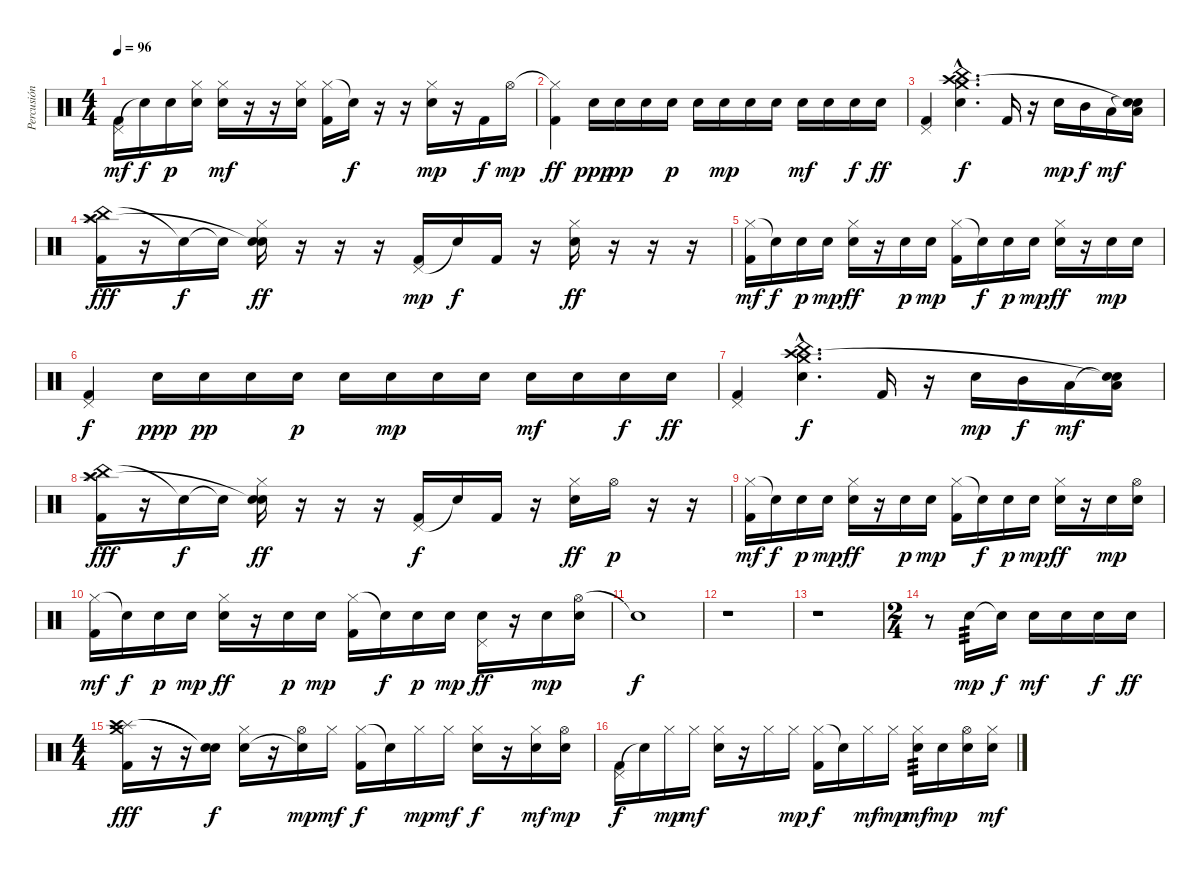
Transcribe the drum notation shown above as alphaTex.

\track ("Percusión" "Percusión") {instrument percussion}
\staff {score}
\articulation defaults
\ts (4 4)
\tempo 96
\clef neutral
\ks c
("Pedal Hi-Hat (hit)" "Kick (hit) 2").16{dy mf} "Snare (hit)"{t}.16{dy f} "Snare (hit) 2".16{dy p} ("Hi-Hat (closed)" "Snare (hit) 2").16 ("Hi-Hat (closed)" "Snare (hit) 2").16{dy mf} r.16 r.16 ("Hi-Hat (closed)" "Snare (hit) 2").16 ("Hi-Hat (closed)" "Kick (hit) 2").16 "Snare (hit)"{t}.16{dy f} r.16 r.16 ("Hi-Hat (closed)" "Snare (hit) 2").16{dy mp} r.16 "Kick (hit) 2".16{dy f} "Hi-Hat (open)".16{dy mp} |
("Hi-Hat (closed)"{t} "Kick (hit) 2").4{dy ff} "Snare (hit) 2".16{dy ppp} "Snare (hit) 2".16{dy pp} "Snare (hit) 2".16 "Snare (hit) 2".16{dy p} "Snare (hit) 2".16 "Snare (hit) 2".16{dy mp} "Snare (hit) 2".16 "Snare (hit) 2".16 "Snare (hit) 2".16{dy mf} "Snare (hit) 2".16 "Snare (hit) 2".16{dy f} "Snare (hit) 2".16{dy ff} |
("Pedal Hi-Hat (hit)" "Kick (hit) 2").4 ("Crash medium (hit)"{hac} "Crash high (hit)"{hac} "Snare (hit) 2"{hac} "China (hit)"{hac}).4{d dy f} "Kick (hit) 2".16 r.16 "Snare (hit) 2".16{dy mp} "Mid Tom (hit)".16{dy f} "Low Tom (hit)".16{dy mf} ("Snare (hit)"{t} "Snare (hit)"{t} "Low Tom (hit)").16 |
("China (hit)" "Crash high (hit)" "Splash (hit)" "Kick (hit) 2").16{dy fff} r.16 "Snare (hit)"{t}.16{dy f} "Snare (hit)"{t}.16 ("Hi-Hat (closed)" "Snare (hit)"{t} "Snare (hit) 2"{tr (38 32)}).16{dy ff} r.16 r.16 r.16 ("Pedal Hi-Hat (hit)" "Kick (hit) 2").16{dy mp} "Snare (hit)"{t}.16{dy f} "Kick (hit) 2".16 r.16 ("Hi-Hat (closed)" "Snare (hit) 2"{tr (38 32)}).16{dy ff} r.16 r.16 r.16 |
("Hi-Hat (closed)" "Kick (hit) 2").16{dy mf} "Snare (hit)"{t}.16{dy f} "Snare (hit) 2".16{dy p} "Snare (hit) 2".16{dy mp} ("Hi-Hat (closed)" "Snare (hit) 2").16{dy ff} r.16 "Snare (hit) 2".16{dy p} "Snare (hit) 2".16{dy mp} ("Hi-Hat (closed)" "Kick (hit) 2").16 "Snare (hit)"{t}.16{dy f} "Snare (hit) 2".16{dy p} "Snare (hit) 2".16{dy mp} ("Hi-Hat (closed)" "Snare (hit) 2").16{dy ff} r.16 "Snare (hit) 2".16{dy mp} "Snare (hit) 2".16 |
("Pedal Hi-Hat (hit)" "Kick (hit) 2").4{dy f} "Snare (hit) 2".16{dy ppp} "Snare (hit) 2".16{dy pp} "Snare (hit) 2".16 "Snare (hit) 2".16{dy p} "Snare (hit) 2".16 "Snare (hit) 2".16{dy mp} "Snare (hit) 2".16 "Snare (hit) 2".16 "Snare (hit) 2".16{dy mf} "Snare (hit) 2".16 "Snare (hit) 2".16{dy f} "Snare (hit) 2".16{dy ff} |
("Pedal Hi-Hat (hit)" "Kick (hit) 2").4 ("Crash medium (hit)"{hac} "Crash high (hit)"{hac} "Snare (hit) 2"{hac} "China (hit)"{hac}).4{d dy f} "Kick (hit) 2".16 r.16 "Snare (hit) 2".16{dy mp} "Mid Tom (hit)".16{dy f} "Low Tom (hit)".16{dy mf} ("Snare (hit)"{t} "Snare (hit)"{t} "Low Tom (hit)").16 |
("China (hit)" "Crash high (hit)" "Splash (hit)" "Kick (hit) 2").16{dy fff} r.16 "Snare (hit)"{t}.16{dy f} "Snare (hit)"{t}.16 ("Hi-Hat (closed)" "Snare (hit)"{t} "Snare (hit) 2"{tr (38 32)}).16{dy ff} r.16 r.16 r.16 ("Pedal Hi-Hat (hit)" "Kick (hit) 2").16{dy f} "Snare (hit)"{t}.16 "Kick (hit) 2".16 r.16 ("Hi-Hat (closed)" "Snare (hit) 2"{tr (38 32)}).16{dy ff} "Hi-Hat (open)".16{dy p} r.16 r.16 |
("Hi-Hat (closed)" "Kick (hit) 2").16{dy mf} "Snare (hit)"{t}.16{dy f} "Snare (hit) 2".16{dy p} "Snare (hit) 2".16{dy mp} ("Hi-Hat (closed)" "Snare (hit) 2").16{dy ff} r.16 "Snare (hit) 2".16{dy p} "Snare (hit) 2".16{dy mp} ("Hi-Hat (closed)" "Kick (hit) 2").16 "Snare (hit)"{t}.16{dy f} "Snare (hit) 2".16{dy p} "Snare (hit) 2".16{dy mp} ("Hi-Hat (closed)" "Snare (hit) 2").16{dy ff} r.16 "Snare (hit) 2".16{dy mp} ("Hi-Hat (open)" "Snare (hit) 2").16 |
("Hi-Hat (closed)" "Kick (hit) 2").16{dy mf} "Snare (hit)"{t}.16{dy f} "Snare (hit) 2".16{dy p} "Snare (hit) 2".16{dy mp} ("Hi-Hat (closed)" "Snare (hit) 2").16{dy ff} r.16 "Snare (hit) 2".16{dy p} "Snare (hit) 2".16{dy mp} ("Hi-Hat (closed)" "Kick (hit) 2").16 "Snare (hit)"{t}.16{dy f} "Snare (hit) 2".16{dy p} "Snare (hit) 2".16{dy mp} ("Pedal Hi-Hat (hit)" "Snare (hit) 2").16{dy ff} r.16 "Snare (hit) 2".16{dy mp} ("Hi-Hat (open)" "Snare (hit) 2").16 |
"Snare (hit)"{t}.1{dy f} |
r.1 |
r.1 |
\ts (2 4)
r.8 "Snare (hit) 2".16{tp 3 dy mp} "Snare (hit) 2"{t}.16{dy f} "Snare (hit) 2".16{dy mf} "Snare (hit) 2".16 "Snare (hit) 2".16{dy f} "Snare (hit) 2".16{dy ff} |
\ts (4 4)
("Splash (hit)" "Crash high (hit)" "Crash medium (hit)" "Kick (hit) 2").16{dy fff} r.16 r.16 ("Snare (hit)"{t} "Snare (hit)"{t}).16{dy f} ("Hi-Hat (closed)" "Snare (hit) 2").16 r.16 ("Hi-Hat (open)" "Snare (hit)"{t}).16{dy mp} "Hi-Hat (closed)".16{dy mf} ("Hi-Hat (closed)" "Kick (hit) 2").16{dy f} "Snare (hit)"{t}.16 "Hi-Hat (closed)".16{dy mp} "Hi-Hat (closed)".16{dy mf} ("Hi-Hat (closed)" "Snare (hit) 2").16{dy f} r.16 ("Hi-Hat (closed)" "Snare (hit) 2").16{dy mf} ("Hi-Hat (open)" "Snare (hit) 2").16{dy mp} |
("Pedal Hi-Hat (hit)" "Kick (hit) 2").16{dy f} "Snare (hit)"{t}.16 "Hi-Hat (closed)".16{dy mp} "Hi-Hat (closed)".16{dy mf} ("Hi-Hat (closed)" "Snare (hit) 2").16 r.16 "Hi-Hat (closed)".16 "Hi-Hat (closed)".16{dy mp} ("Hi-Hat (closed)" "Kick (hit) 2").16{dy f} "Snare (hit)"{t}.16 "Hi-Hat (closed)".16{dy mf} "Hi-Hat (closed)".16{dy mp} ("Hi-Hat (closed)" "Snare (hit) 2").16{tp 3 dy mf} "Snare (hit) 2".16{dy mp} ("Hi-Hat (open)" "Snare (hit) 2").16 ("Hi-Hat (closed)" "Snare (hit) 2").16{dy mf}
